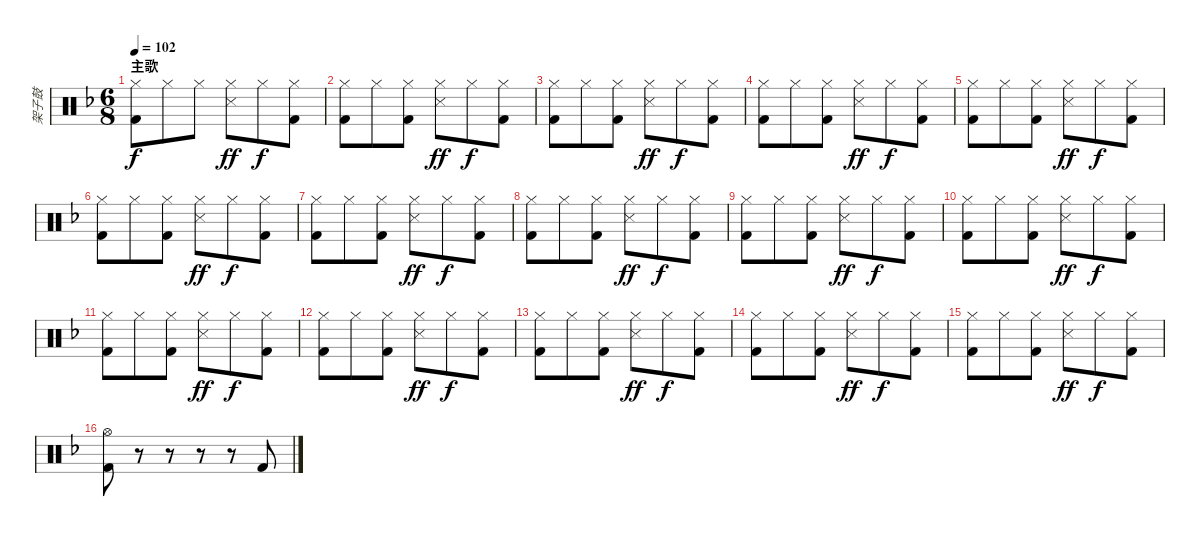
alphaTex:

\track ("架子鼓" "架子鼓") {instrument percussion}
\staff {score}
\articulation defaults
\ts (6 8)
\section ("" "主歌")
\tempo 102
\clef neutral
\ks f
("Hi-Hat (closed)" "Kick (hit) 2").8{dy f} "Hi-Hat (closed)".8 "Hi-Hat (closed)".8 ("Hi-Hat (closed)" "Snare (side stick) 3").8{dy ff} "Hi-Hat (closed)".8{dy f} ("Hi-Hat (closed)" "Kick (hit) 2").8 |
("Hi-Hat (closed)" "Kick (hit) 2").8 "Hi-Hat (closed)".8 ("Hi-Hat (closed)" "Kick (hit) 2").8 ("Hi-Hat (closed)" "Snare (side stick) 3").8{dy ff} "Hi-Hat (closed)".8{dy f} ("Hi-Hat (closed)" "Kick (hit) 2").8 |
("Hi-Hat (closed)" "Kick (hit) 2").8 "Hi-Hat (closed)".8 ("Hi-Hat (closed)" "Kick (hit) 2").8 ("Hi-Hat (closed)" "Snare (side stick) 3").8{dy ff} "Hi-Hat (closed)".8{dy f} ("Hi-Hat (closed)" "Kick (hit) 2").8 |
("Hi-Hat (closed)" "Kick (hit) 2").8 "Hi-Hat (closed)".8 ("Hi-Hat (closed)" "Kick (hit) 2").8 ("Hi-Hat (closed)" "Snare (side stick) 3").8{dy ff} "Hi-Hat (closed)".8{dy f} ("Hi-Hat (closed)" "Kick (hit) 2").8 |
("Hi-Hat (closed)" "Kick (hit) 2").8 "Hi-Hat (closed)".8 ("Hi-Hat (closed)" "Kick (hit) 2").8 ("Hi-Hat (closed)" "Snare (side stick) 3").8{dy ff} "Hi-Hat (closed)".8{dy f} ("Hi-Hat (closed)" "Kick (hit) 2").8 |
("Hi-Hat (closed)" "Kick (hit) 2").8 "Hi-Hat (closed)".8 ("Hi-Hat (closed)" "Kick (hit) 2").8 ("Hi-Hat (closed)" "Snare (side stick) 3").8{dy ff} "Hi-Hat (closed)".8{dy f} ("Hi-Hat (closed)" "Kick (hit) 2").8 |
("Hi-Hat (closed)" "Kick (hit) 2").8 "Hi-Hat (closed)".8 ("Hi-Hat (closed)" "Kick (hit) 2").8 ("Hi-Hat (closed)" "Snare (side stick) 3").8{dy ff} "Hi-Hat (closed)".8{dy f} ("Hi-Hat (closed)" "Kick (hit) 2").8 |
("Hi-Hat (closed)" "Kick (hit) 2").8 "Hi-Hat (closed)".8 ("Hi-Hat (closed)" "Kick (hit) 2").8 ("Hi-Hat (closed)" "Snare (side stick) 3").8{dy ff} "Hi-Hat (closed)".8{dy f} ("Hi-Hat (closed)" "Kick (hit) 2").8 |
("Hi-Hat (closed)" "Kick (hit) 2").8 "Hi-Hat (closed)".8 ("Hi-Hat (closed)" "Kick (hit) 2").8 ("Hi-Hat (closed)" "Snare (side stick) 3").8{dy ff} "Hi-Hat (closed)".8{dy f} ("Hi-Hat (closed)" "Kick (hit) 2").8 |
("Hi-Hat (closed)" "Kick (hit) 2").8 "Hi-Hat (closed)".8 ("Hi-Hat (closed)" "Kick (hit) 2").8 ("Hi-Hat (closed)" "Snare (side stick) 3").8{dy ff} "Hi-Hat (closed)".8{dy f} ("Hi-Hat (closed)" "Kick (hit) 2").8 |
("Hi-Hat (closed)" "Kick (hit) 2").8 "Hi-Hat (closed)".8 ("Hi-Hat (closed)" "Kick (hit) 2").8 ("Hi-Hat (closed)" "Snare (side stick) 3").8{dy ff} "Hi-Hat (closed)".8{dy f} ("Hi-Hat (closed)" "Kick (hit) 2").8 |
("Hi-Hat (closed)" "Kick (hit) 2").8 "Hi-Hat (closed)".8 ("Hi-Hat (closed)" "Kick (hit) 2").8 ("Hi-Hat (closed)" "Snare (side stick) 3").8{dy ff} "Hi-Hat (closed)".8{dy f} ("Hi-Hat (closed)" "Kick (hit) 2").8 |
("Hi-Hat (closed)" "Kick (hit) 2").8 "Hi-Hat (closed)".8 ("Hi-Hat (closed)" "Kick (hit) 2").8 ("Hi-Hat (closed)" "Snare (side stick) 3").8{dy ff} "Hi-Hat (closed)".8{dy f} ("Hi-Hat (closed)" "Kick (hit) 2").8 |
("Hi-Hat (closed)" "Kick (hit) 2").8 "Hi-Hat (closed)".8 ("Hi-Hat (closed)" "Kick (hit) 2").8 ("Hi-Hat (closed)" "Snare (side stick) 3").8{dy ff} "Hi-Hat (closed)".8{dy f} ("Hi-Hat (closed)" "Kick (hit) 2").8 |
("Hi-Hat (closed)" "Kick (hit) 2").8 "Hi-Hat (closed)".8 ("Hi-Hat (closed)" "Kick (hit) 2").8 ("Hi-Hat (closed)" "Snare (side stick) 3").8{dy ff} "Hi-Hat (closed)".8{dy f} ("Hi-Hat (closed)" "Kick (hit) 2").8 |
("Hi-Hat (open)" "Kick (hit) 2").8 r.8 r.8 r.8 r.8 "Kick (hit) 2".8
